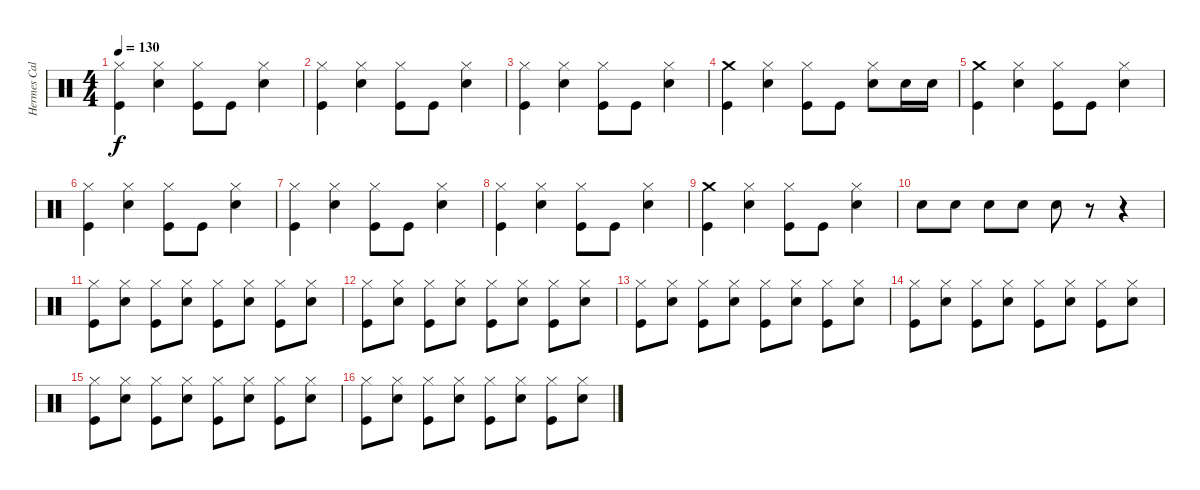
\track ("Hermes Calabria" "Hermes Cal") {instrument percussion}
\staff {score}
\articulation defaults
\ts (4 4)
\tempo 130
\clef neutral
\ks c
("Hi-Hat (closed)" "Kick (hit)").4{dy f} ("Hi-Hat (closed)" "Snare (hit) 2").4 ("Hi-Hat (closed)" "Kick (hit)").8 "Kick (hit)".8 ("Hi-Hat (closed)" "Snare (hit) 2").4 |
("Hi-Hat (closed)" "Kick (hit)").4 ("Hi-Hat (closed)" "Snare (hit) 2").4 ("Hi-Hat (closed)" "Kick (hit)").8 "Kick (hit)".8 ("Hi-Hat (closed)" "Snare (hit) 2").4 |
("Hi-Hat (closed)" "Kick (hit)").4 ("Hi-Hat (closed)" "Snare (hit) 2").4 ("Hi-Hat (closed)" "Kick (hit)").8 "Kick (hit)".8 ("Hi-Hat (closed)" "Snare (hit) 2").4 |
("Crash medium (hit)" "Kick (hit)").4 ("Hi-Hat (closed)" "Snare (hit) 2").4 ("Hi-Hat (closed)" "Kick (hit)").8 "Kick (hit)".8 ("Hi-Hat (closed)" "Snare (hit) 2").8 "Snare (hit) 2".16 "Snare (hit) 2".16 |
("Crash medium (hit)" "Kick (hit)").4 ("Hi-Hat (closed)" "Snare (hit) 2").4 ("Hi-Hat (closed)" "Kick (hit)").8 "Kick (hit)".8 ("Hi-Hat (closed)" "Snare (hit) 2").4 |
("Hi-Hat (closed)" "Kick (hit)").4 ("Hi-Hat (closed)" "Snare (hit) 2").4 ("Hi-Hat (closed)" "Kick (hit)").8 "Kick (hit)".8 ("Hi-Hat (closed)" "Snare (hit) 2").4 |
("Hi-Hat (closed)" "Kick (hit)").4 ("Hi-Hat (closed)" "Snare (hit) 2").4 ("Hi-Hat (closed)" "Kick (hit)").8 "Kick (hit)".8 ("Hi-Hat (closed)" "Snare (hit) 2").4 |
("Hi-Hat (closed)" "Kick (hit)").4 ("Hi-Hat (closed)" "Snare (hit) 2").4 ("Hi-Hat (closed)" "Kick (hit)").8 "Kick (hit)".8 ("Hi-Hat (closed)" "Snare (hit) 2").4 |
("Crash medium (hit)" "Kick (hit)").4 ("Hi-Hat (closed)" "Snare (hit) 2").4 ("Hi-Hat (closed)" "Kick (hit)").8 "Kick (hit)".8 ("Hi-Hat (closed)" "Snare (hit) 2").4 |
"Snare (hit) 2".8 "Snare (hit) 2".8 "Snare (hit) 2".8 "Snare (hit) 2".8 "Snare (hit) 2".8 r.8 r.4 |
("Hi-Hat (closed)" "Kick (hit)").8 ("Hi-Hat (closed)" "Snare (hit) 2").8 ("Hi-Hat (closed)" "Kick (hit)").8 ("Hi-Hat (closed)" "Snare (hit) 2").8 ("Hi-Hat (closed)" "Kick (hit)").8 ("Hi-Hat (closed)" "Snare (hit) 2").8 ("Hi-Hat (closed)" "Kick (hit)").8 ("Hi-Hat (closed)" "Snare (hit) 2").8 |
("Hi-Hat (closed)" "Kick (hit)").8 ("Hi-Hat (closed)" "Snare (hit) 2").8 ("Hi-Hat (closed)" "Kick (hit)").8 ("Hi-Hat (closed)" "Snare (hit) 2").8 ("Hi-Hat (closed)" "Kick (hit)").8 ("Hi-Hat (closed)" "Snare (hit) 2").8 ("Hi-Hat (closed)" "Kick (hit)").8 ("Hi-Hat (closed)" "Snare (hit) 2").8 |
("Hi-Hat (closed)" "Kick (hit)").8 ("Hi-Hat (closed)" "Snare (hit) 2").8 ("Hi-Hat (closed)" "Kick (hit)").8 ("Hi-Hat (closed)" "Snare (hit) 2").8 ("Hi-Hat (closed)" "Kick (hit)").8 ("Hi-Hat (closed)" "Snare (hit) 2").8 ("Hi-Hat (closed)" "Kick (hit)").8 ("Hi-Hat (closed)" "Snare (hit) 2").8 |
("Hi-Hat (closed)" "Kick (hit)").8 ("Hi-Hat (closed)" "Snare (hit) 2").8 ("Hi-Hat (closed)" "Kick (hit)").8 ("Hi-Hat (closed)" "Snare (hit) 2").8 ("Hi-Hat (closed)" "Kick (hit)").8 ("Hi-Hat (closed)" "Snare (hit) 2").8 ("Hi-Hat (closed)" "Kick (hit)").8 ("Hi-Hat (closed)" "Snare (hit) 2").8 |
("Hi-Hat (closed)" "Kick (hit)").8 ("Hi-Hat (closed)" "Snare (hit) 2").8 ("Hi-Hat (closed)" "Kick (hit)").8 ("Hi-Hat (closed)" "Snare (hit) 2").8 ("Hi-Hat (closed)" "Kick (hit)").8 ("Hi-Hat (closed)" "Snare (hit) 2").8 ("Hi-Hat (closed)" "Kick (hit)").8 ("Hi-Hat (closed)" "Snare (hit) 2").8 |
("Hi-Hat (closed)" "Kick (hit)").8 ("Hi-Hat (closed)" "Snare (hit) 2").8 ("Hi-Hat (closed)" "Kick (hit)").8 ("Hi-Hat (closed)" "Snare (hit) 2").8 ("Hi-Hat (closed)" "Kick (hit)").8 ("Hi-Hat (closed)" "Snare (hit) 2").8 ("Hi-Hat (closed)" "Kick (hit)").8 ("Hi-Hat (closed)" "Snare (hit) 2").8
